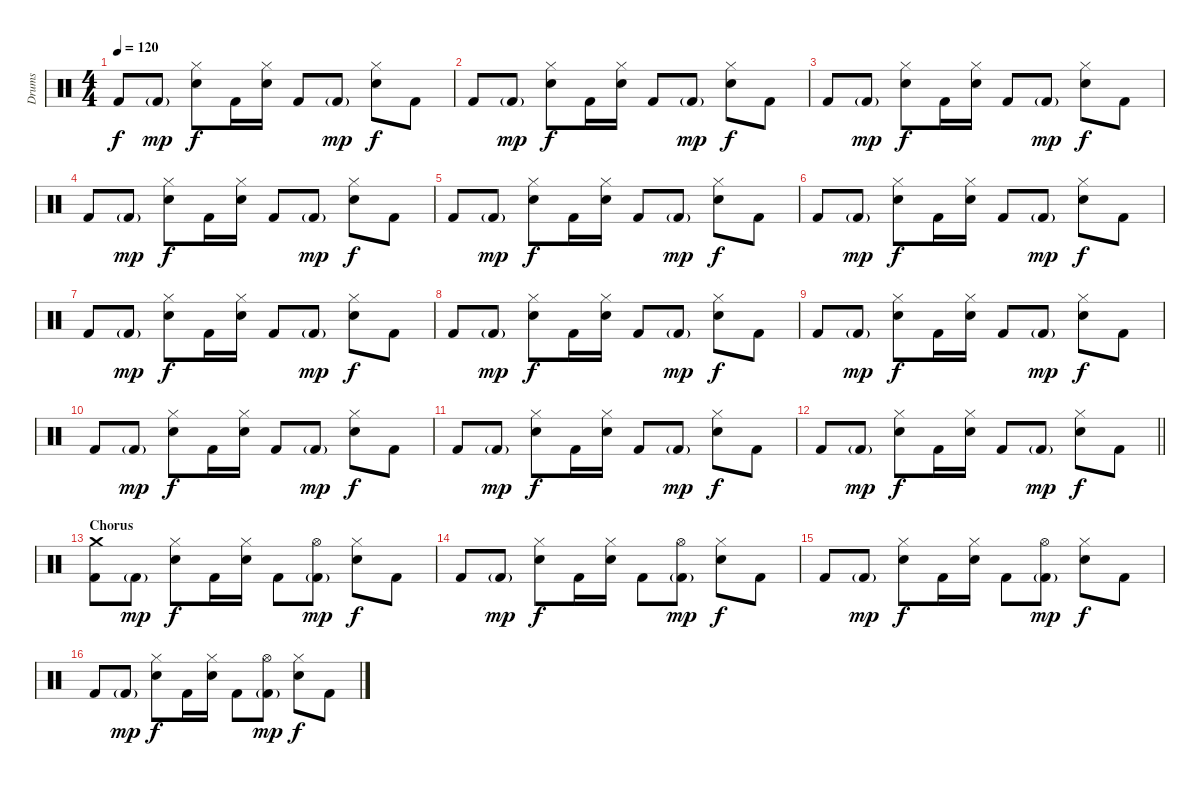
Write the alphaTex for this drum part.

\track ("Drums" "Drums") {instrument percussion}
\staff {score}
\articulation defaults
\ts (4 4)
\tempo 120
\clef neutral
\ks c "Kick (hit) 2".8{dy f} "Kick (hit) 2"{g}.8{dy mp}
("Hi-Hat (closed)" "Snare (hit) 2").8{dy f} "Kick (hit) 2".16 ("Hi-Hat (closed)" "Snare (hit) 2").16 "Kick (hit) 2".8 "Kick (hit) 2"{g}.8{dy mp} ("Hi-Hat (closed)" "Snare (hit) 2").8{dy f} "Kick (hit) 2".8 |
"Kick (hit) 2".8 "Kick (hit) 2"{g}.8{dy mp} ("Hi-Hat (closed)" "Snare (hit) 2").8{dy f} "Kick (hit) 2".16 ("Hi-Hat (closed)" "Snare (hit) 2").16 "Kick (hit) 2".8 "Kick (hit) 2"{g}.8{dy mp} ("Hi-Hat (closed)" "Snare (hit) 2").8{dy f} "Kick (hit) 2".8 |
"Kick (hit) 2".8 "Kick (hit) 2"{g}.8{dy mp} ("Hi-Hat (closed)" "Snare (hit) 2").8{dy f} "Kick (hit) 2".16 ("Hi-Hat (closed)" "Snare (hit) 2").16 "Kick (hit) 2".8 "Kick (hit) 2"{g}.8{dy mp} ("Hi-Hat (closed)" "Snare (hit) 2").8{dy f} "Kick (hit) 2".8 |
"Kick (hit) 2".8 "Kick (hit) 2"{g}.8{dy mp} ("Hi-Hat (closed)" "Snare (hit) 2").8{dy f} "Kick (hit) 2".16 ("Hi-Hat (closed)" "Snare (hit) 2").16 "Kick (hit) 2".8 "Kick (hit) 2"{g}.8{dy mp} ("Hi-Hat (closed)" "Snare (hit) 2").8{dy f} "Kick (hit) 2".8 |
"Kick (hit) 2".8 "Kick (hit) 2"{g}.8{dy mp} ("Hi-Hat (closed)" "Snare (hit) 2").8{dy f} "Kick (hit) 2".16 ("Hi-Hat (closed)" "Snare (hit) 2").16 "Kick (hit) 2".8 "Kick (hit) 2"{g}.8{dy mp} ("Hi-Hat (closed)" "Snare (hit) 2").8{dy f} "Kick (hit) 2".8 |
"Kick (hit) 2".8 "Kick (hit) 2"{g}.8{dy mp} ("Hi-Hat (closed)" "Snare (hit) 2").8{dy f} "Kick (hit) 2".16 ("Hi-Hat (closed)" "Snare (hit) 2").16 "Kick (hit) 2".8 "Kick (hit) 2"{g}.8{dy mp} ("Hi-Hat (closed)" "Snare (hit) 2").8{dy f} "Kick (hit) 2".8 |
"Kick (hit) 2".8 "Kick (hit) 2"{g}.8{dy mp} ("Hi-Hat (closed)" "Snare (hit) 2").8{dy f} "Kick (hit) 2".16 ("Hi-Hat (closed)" "Snare (hit) 2").16 "Kick (hit) 2".8 "Kick (hit) 2"{g}.8{dy mp} ("Hi-Hat (closed)" "Snare (hit) 2").8{dy f} "Kick (hit) 2".8 |
"Kick (hit) 2".8 "Kick (hit) 2"{g}.8{dy mp} ("Hi-Hat (closed)" "Snare (hit) 2").8{dy f} "Kick (hit) 2".16 ("Hi-Hat (closed)" "Snare (hit) 2").16 "Kick (hit) 2".8 "Kick (hit) 2"{g}.8{dy mp} ("Hi-Hat (closed)" "Snare (hit) 2").8{dy f} "Kick (hit) 2".8 |
"Kick (hit) 2".8 "Kick (hit) 2"{g}.8{dy mp} ("Hi-Hat (closed)" "Snare (hit) 2").8{dy f} "Kick (hit) 2".16 ("Hi-Hat (closed)" "Snare (hit) 2").16 "Kick (hit) 2".8 "Kick (hit) 2"{g}.8{dy mp} ("Hi-Hat (closed)" "Snare (hit) 2").8{dy f} "Kick (hit) 2".8 |
"Kick (hit) 2".8 "Kick (hit) 2"{g}.8{dy mp} ("Hi-Hat (closed)" "Snare (hit) 2").8{dy f} "Kick (hit) 2".16 ("Hi-Hat (closed)" "Snare (hit) 2").16 "Kick (hit) 2".8 "Kick (hit) 2"{g}.8{dy mp} ("Hi-Hat (closed)" "Snare (hit) 2").8{dy f} "Kick (hit) 2".8 |
"Kick (hit) 2".8 "Kick (hit) 2"{g}.8{dy mp} ("Hi-Hat (closed)" "Snare (hit) 2").8{dy f} "Kick (hit) 2".16 ("Hi-Hat (closed)" "Snare (hit) 2").16 "Kick (hit) 2".8 "Kick (hit) 2"{g}.8{dy mp} ("Hi-Hat (closed)" "Snare (hit) 2").8{dy f} "Kick (hit) 2".8 |
\barLineRight lightlight "Kick (hit) 2".8 "Kick (hit) 2"{g}.8{dy mp}
("Hi-Hat (closed)" "Snare (hit) 2").8{dy f} "Kick (hit) 2".16 ("Hi-Hat (closed)" "Snare (hit) 2").16 "Kick (hit) 2".8 "Kick (hit) 2"{g}.8{dy mp} ("Hi-Hat (closed)" "Snare (hit) 2").8{dy f} "Kick (hit) 2".8 |
\section ("" "Chorus")
("Crash medium (hit)" "Kick (hit) 2").8 "Kick (hit) 2"{g}.8{dy mp} ("Hi-Hat (closed)" "Snare (hit) 2").8{dy f} "Kick (hit) 2".16 ("Hi-Hat (closed)" "Snare (hit) 2").16 "Kick (hit) 2".8 ("Hi-Hat (open)" "Kick (hit) 2"{g}).8{dy mp} ("Hi-Hat (closed)" "Snare (hit) 2").8{dy f} "Kick (hit) 2".8 |
"Kick (hit) 2".8 "Kick (hit) 2"{g}.8{dy mp} ("Hi-Hat (closed)" "Snare (hit) 2").8{dy f} "Kick (hit) 2".16 ("Hi-Hat (closed)" "Snare (hit) 2").16 "Kick (hit) 2".8 ("Hi-Hat (open)" "Kick (hit) 2"{g}).8{dy mp} ("Hi-Hat (closed)" "Snare (hit) 2").8{dy f} "Kick (hit) 2".8 |
"Kick (hit) 2".8 "Kick (hit) 2"{g}.8{dy mp} ("Hi-Hat (closed)" "Snare (hit) 2").8{dy f} "Kick (hit) 2".16 ("Hi-Hat (closed)" "Snare (hit) 2").16 "Kick (hit) 2".8 ("Hi-Hat (open)" "Kick (hit) 2"{g}).8{dy mp} ("Hi-Hat (closed)" "Snare (hit) 2").8{dy f} "Kick (hit) 2".8 |
"Kick (hit) 2".8 "Kick (hit) 2"{g}.8{dy mp} ("Hi-Hat (closed)" "Snare (hit) 2").8{dy f} "Kick (hit) 2".16 ("Hi-Hat (closed)" "Snare (hit) 2").16 "Kick (hit) 2".8 ("Hi-Hat (open)" "Kick (hit) 2"{g}).8{dy mp} ("Hi-Hat (closed)" "Snare (hit) 2").8{dy f} "Kick (hit) 2".8
